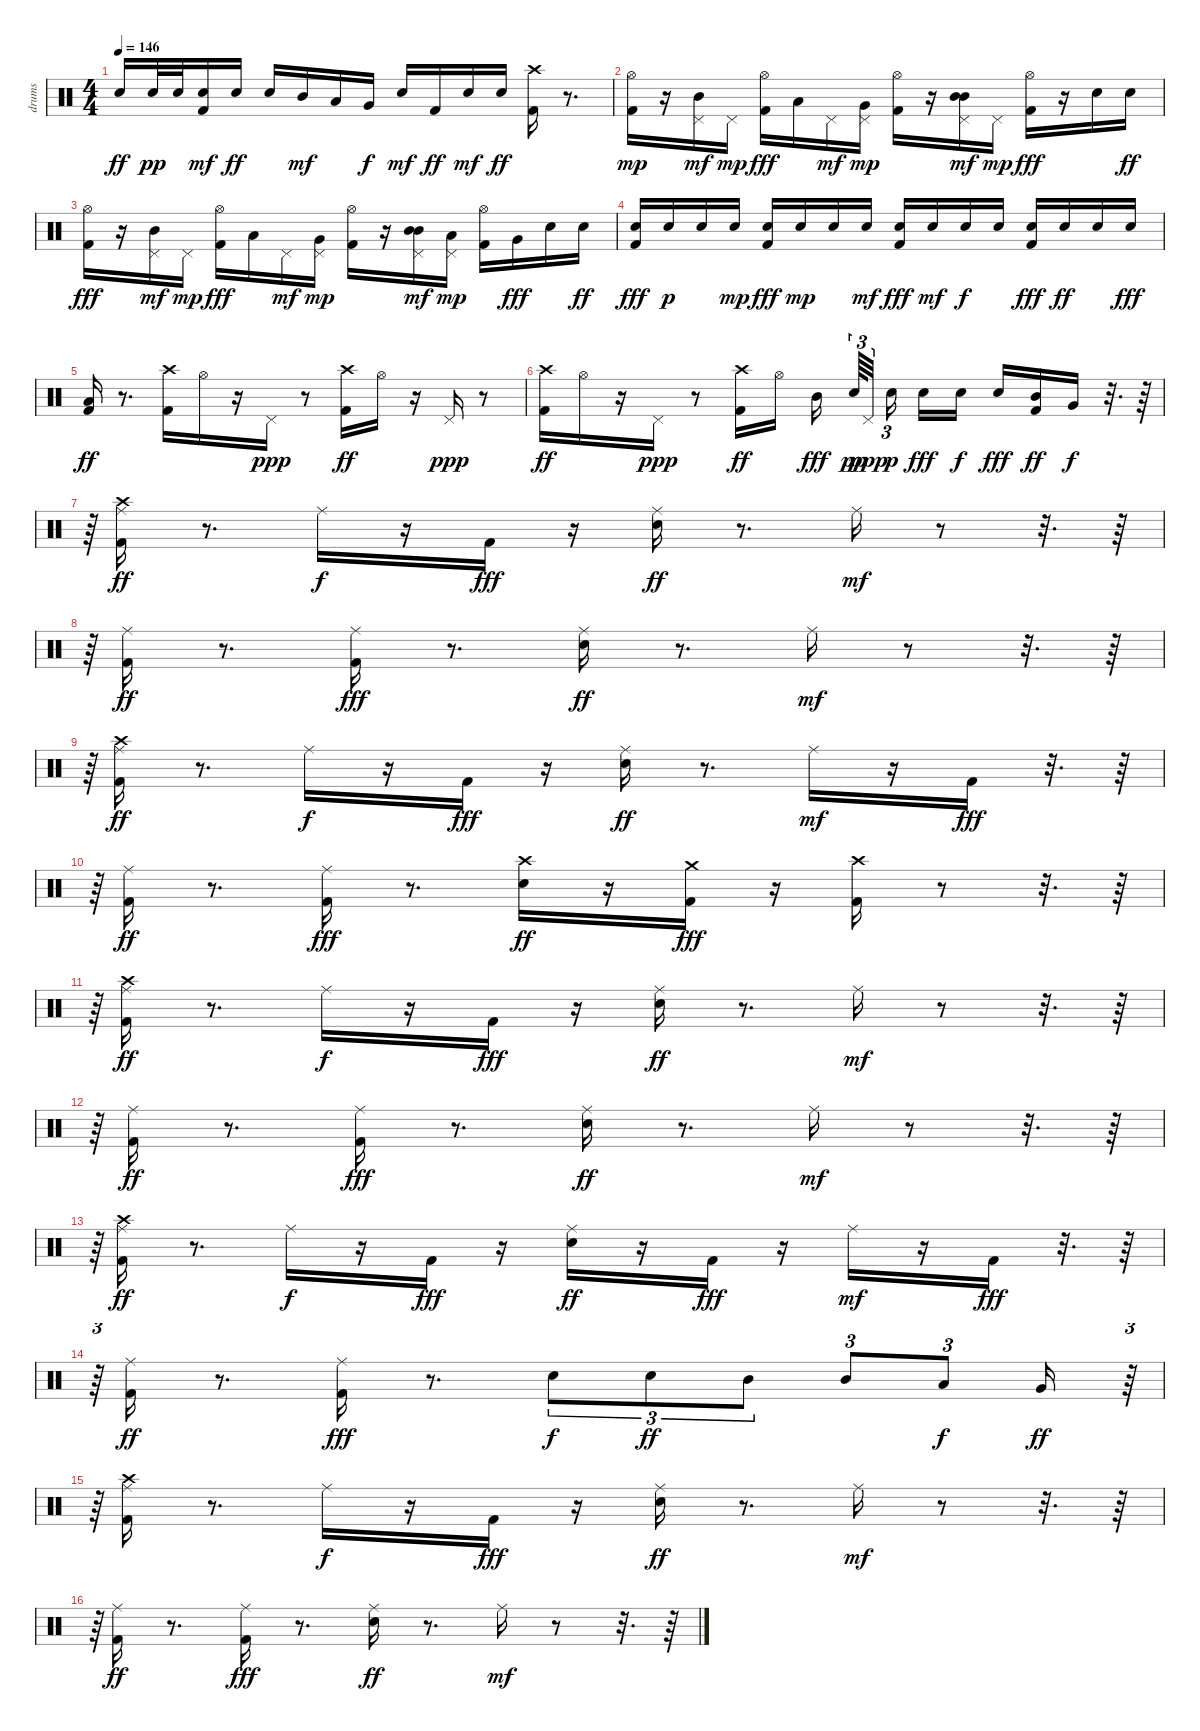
\track ("drums" "drums") {instrument percussion}
\staff {score}
\articulation defaults
\ts (4 4)
\tempo 146
\clef neutral
\ks c "Electric Snare (hit)".16{dy ff} "Snare (hit) 2".32{dy pp} "Snare (hit) 2".32
("Kick (hit) 2" "Electric Snare (hit)").16{dy mf} "Electric Snare (hit)".16{dy ff} "Electric Snare (hit)".16 "Mid Tom (hit)".16{dy mf} "Low Tom (hit)".16 "Very Low Tom (hit)".16{dy f} "Snare (hit) 2".16{dy mf} "Kick (hit) 2".16{dy ff} "Electric Snare (hit)".16{dy mf} "Electric Snare (hit)".16{dy ff} ("Kick (hit) 2" "Crash high (hit)").16 r.8{d} |
("Kick (hit) 2" "Hi-Hat (open)").16{dy mp} r.16 ("Mid Tom (hit)" "Pedal Hi-Hat (hit)").16{dy mf} "Pedal Hi-Hat (hit)".16{dy mp} ("Hi-Hat (open)" "Kick (hit) 2").16{dy fff} "Low Tom (hit)".16 "Pedal Hi-Hat (hit)".16{dy mf} ("Very Low Tom (hit)" "Pedal Hi-Hat (hit)").16{dy mp} ("Kick (hit) 2" "Hi-Hat (open)").16 r.16 ("Mid Tom (hit)" "Mid Tom (hit)" "Pedal Hi-Hat (hit)").16{dy mf} "Pedal Hi-Hat (hit)".16{dy mp} ("Hi-Hat (open)" "Kick (hit) 2").16{dy fff} r.16 "Electric Snare (hit)".16 "Electric Snare (hit)".16{dy ff} |
("Hi-Hat (open)" "Kick (hit) 2").16{dy fff} r.16 ("Mid Tom (hit)" "Pedal Hi-Hat (hit)").16{dy mf} "Pedal Hi-Hat (hit)".16{dy mp} ("Hi-Hat (open)" "Kick (hit) 2").16{dy fff} "Low Tom (hit)".16 "Pedal Hi-Hat (hit)".16{dy mf} ("Very Low Tom (hit)" "Pedal Hi-Hat (hit)").16{dy mp} ("Kick (hit) 2" "Hi-Hat (open)").16 r.16 ("Mid Tom (hit)" "Mid Tom (hit)" "Pedal Hi-Hat (hit)").16{dy mf} ("Low Tom (hit)" "Pedal Hi-Hat (hit)").16{dy mp} ("Kick (hit) 2" "Hi-Hat (open)").16 "Very Low Tom (hit)".16{dy fff} "Electric Snare (hit)".16 "Electric Snare (hit)".16{dy ff} |
("Snare (hit) 2" "Kick (hit) 2").16{dy fff} "Snare (hit) 2".16{dy p} "Snare (hit) 2".16 "Snare (hit) 2".16{dy mp} ("Snare (hit) 2" "Kick (hit) 2").16{dy fff} "Snare (hit) 2".16{dy mp} "Snare (hit) 2".16 "Snare (hit) 2".16{dy mf} ("Snare (hit) 2" "Kick (hit) 2").16{dy fff} "Snare (hit) 2".16{dy mf} "Snare (hit) 2".16{dy f} "Snare (hit) 2".16 ("Snare (hit) 2" "Kick (hit) 2").16{dy fff} "Snare (hit) 2".16{dy ff} "Snare (hit) 2".16 "Snare (hit) 2".16{dy fff} |
("Kick (hit) 2" "Low Floor Tom (hit)").16{dy ff} r.8{d} ("Crash high (hit)" "Kick (hit) 2").16 "Hi-Hat (open)".16 r.16 "Pedal Hi-Hat (hit)".16{dy ppp} r.8 ("Crash high (hit)" "Kick (hit) 2").16{dy ff} "Hi-Hat (open)".16 r.16 "Pedal Hi-Hat (hit)".16{dy ppp} r.8 |
("Crash high (hit)" "Kick (hit) 2").16{dy ff} "Hi-Hat (open)".16 r.16 "Pedal Hi-Hat (hit)".16{dy ppp} r.8 ("Crash high (hit)" "Kick (hit) 2").16{dy ff} "Hi-Hat (open)".16 "Mid Tom (hit)".16{dy fff beam splitsecondary} "Snare (hit) 2".64{tu (3 2) dy pp} "Pedal Hi-Hat (hit)".32{tu (3 2) dy ppp beam splitsecondary} "Snare (hit) 2".16{tu (3 2) dy p beam splitsecondary} "Snare (hit) 2".16{dy fff} "Electric Snare (hit)".16{dy f} "Electric Snare (hit)".16{dy fff} ("Kick (hit) 2" "Mid Tom (hit)").16{dy ff} "Very Low Tom (hit)".16{dy f} r.32{d} r.64 |
r.64{tu (3 2)} ("Crash high (hit)" "Kick (hit) 2" "Ride (middle)").16{dy ff} r.8{d} "Ride (middle)".16{dy f} r.16 "Kick (hit) 2".16{dy fff} r.16 ("Electric Snare (hit)" "Ride (middle)").16{dy ff} r.8{d} "Ride (middle)".16{dy mf} r.8 r.32{d} r.64 |
r.64{tu (3 2)} ("Kick (hit) 2" "Ride (middle)").16{dy ff} r.8{d} ("Kick (hit) 2" "Ride (middle)").16{dy fff} r.8{d} ("Electric Snare (hit)" "Ride (middle)").16{dy ff} r.8{d} "Ride (middle)".16{dy mf} r.8 r.32{d} r.64 |
r.64{tu (3 2)} ("Crash high (hit)" "Kick (hit) 2" "Ride (middle)").16{dy ff} r.8{d} "Ride (middle)".16{dy f} r.16 "Kick (hit) 2".16{dy fff} r.16 ("Electric Snare (hit)" "Ride (middle)").16{dy ff} r.8{d} "Ride (middle)".16{dy mf} r.16 "Kick (hit) 2".16{dy fff} r.32{d} r.64 |
r.64{tu (3 2)} ("Kick (hit) 2" "Ride (middle)").16{dy ff} r.8{d} ("Kick (hit) 2" "Ride (middle)").16{dy fff} r.8{d} ("Crash high (hit)" "Electric Snare (hit)").16{dy ff} r.16 ("Kick (hit) 2" "Crash medium (hit)").16{dy fff} r.16 ("Crash high (hit)" "Kick (hit) 2").16 r.8 r.32{d} r.64 |
r.64{tu (3 2)} ("Crash high (hit)" "Kick (hit) 2" "Ride (middle)").16{dy ff} r.8{d} "Ride (middle)".16{dy f} r.16 "Kick (hit) 2".16{dy fff} r.16 ("Electric Snare (hit)" "Ride (middle)").16{dy ff} r.8{d} "Ride (middle)".16{dy mf} r.8 r.32{d} r.64 |
r.64{tu (3 2)} ("Kick (hit) 2" "Ride (middle)").16{dy ff} r.8{d} ("Kick (hit) 2" "Ride (middle)").16{dy fff} r.8{d} ("Electric Snare (hit)" "Ride (middle)").16{dy ff} r.8{d} "Ride (middle)".16{dy mf} r.8 r.32{d} r.64 |
r.64{tu (3 2)} ("Crash high (hit)" "Kick (hit) 2" "Ride (middle)").16{dy ff} r.8{d} "Ride (middle)".16{dy f} r.16 "Kick (hit) 2".16{dy fff} r.16 ("Electric Snare (hit)" "Ride (middle)").16{dy ff} r.16 "Kick (hit) 2".16{dy fff} r.16 "Ride (middle)".16{dy mf} r.16 "Kick (hit) 2".16{dy fff} r.32{d} r.64 |
r.64{tu (3 2)} ("Kick (hit) 2" "Ride (middle)").16{dy ff} r.8{d} ("Kick (hit) 2" "Ride (middle)").16{dy fff} r.8{d} "Electric Snare (hit)".8{tu (3 2) dy f} "Electric Snare (hit)".8{tu (3 2) dy ff} "Mid Tom (hit)".8{tu (3 2)} "Mid Tom (hit)".8{tu (3 2)} "Low Tom (hit)".8{tu (3 2) dy f} "Very Low Tom (hit)".16{dy ff} r.64{tu (3 2)} |
r.64{tu (3 2)} ("Crash high (hit)" "Kick (hit) 2" "Ride (middle)").16 r.8{d} "Ride (middle)".16{dy f} r.16 "Kick (hit) 2".16{dy fff} r.16 ("Electric Snare (hit)" "Ride (middle)").16{dy ff} r.8{d} "Ride (middle)".16{dy mf} r.8 r.32{d} r.64 |
r.64{tu (3 2)} ("Kick (hit) 2" "Ride (middle)").16{dy ff} r.8{d} ("Kick (hit) 2" "Ride (middle)").16{dy fff} r.8{d} ("Electric Snare (hit)" "Ride (middle)").16{dy ff} r.8{d} "Ride (middle)".16{dy mf} r.8 r.32{d} r.64
